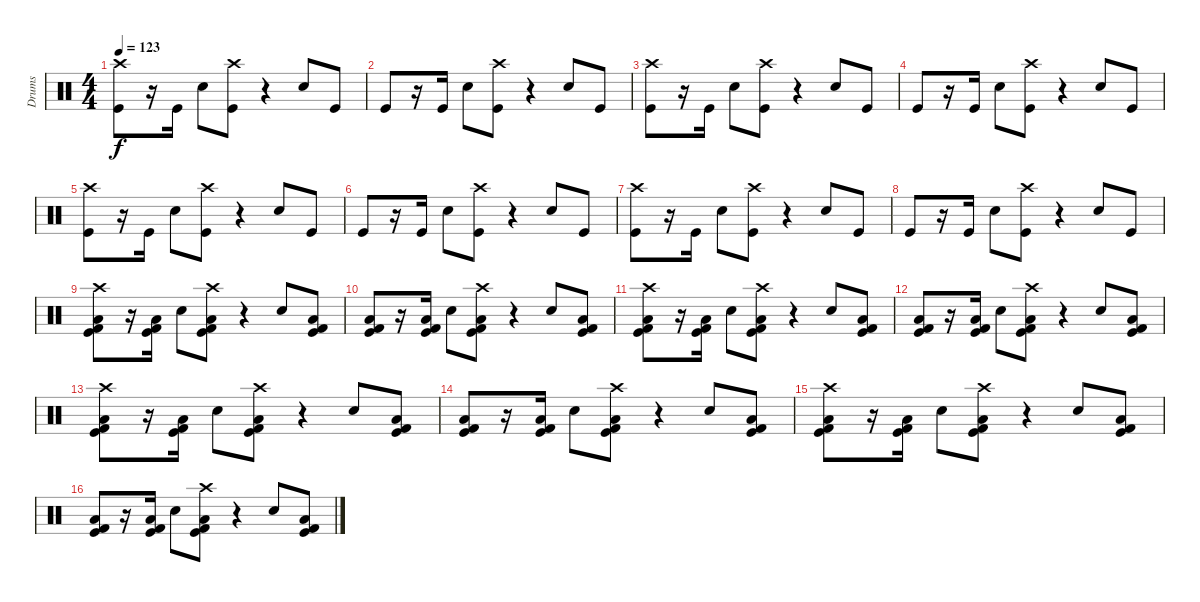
\track ("Drums" "Drums") {instrument percussion}
\staff {score}
\articulation defaults
\ts (4 4)
\tempo 123
\clef neutral
\ks c
("Crash high (hit)" "Kick (hit)").8{dy f volume 8} r.16 "Kick (hit)".16 "Electric Snare (hit)".8 ("Crash high (hit)" "Kick (hit)").8 r.4 "Electric Snare (hit)".8 "Kick (hit)".8 |
"Kick (hit)".8 r.16 "Kick (hit)".16 "Electric Snare (hit)".8 ("Crash high (hit)" "Kick (hit)").8 r.4 "Electric Snare (hit)".8 "Kick (hit)".8 |
("Crash high (hit)" "Kick (hit)").8 r.16 "Kick (hit)".16 "Electric Snare (hit)".8 ("Crash high (hit)" "Kick (hit)").8 r.4 "Electric Snare (hit)".8 "Kick (hit)".8 |
"Kick (hit)".8 r.16 "Kick (hit)".16 "Electric Snare (hit)".8 ("Crash high (hit)" "Kick (hit)").8 r.4 "Electric Snare (hit)".8 "Kick (hit)".8 |
("Crash high (hit)" "Kick (hit)").8 r.16 "Kick (hit)".16 "Electric Snare (hit)".8 ("Crash high (hit)" "Kick (hit)").8 r.4 "Electric Snare (hit)".8 "Kick (hit)".8 |
"Kick (hit)".8 r.16 "Kick (hit)".16 "Electric Snare (hit)".8 ("Crash high (hit)" "Kick (hit)").8 r.4 "Electric Snare (hit)".8 "Kick (hit)".8 |
("Crash high (hit)" "Kick (hit)").8 r.16 "Kick (hit)".16 "Electric Snare (hit)".8 ("Crash high (hit)" "Kick (hit)").8 r.4 "Electric Snare (hit)".8 "Kick (hit)".8 |
"Kick (hit)".8 r.16 "Kick (hit)".16 "Electric Snare (hit)".8 ("Crash high (hit)" "Kick (hit)").8 r.4 "Electric Snare (hit)".8 "Kick (hit)".8 |
("Crash high (hit)" "Kick (hit)" "Kick (hit) 2" "Low Floor Tom (hit)").8 r.16 ("Kick (hit)" "Kick (hit) 2" "Low Floor Tom (hit)").16 "Electric Snare (hit)".8 ("Crash high (hit)" "Kick (hit)" "Kick (hit) 2" "Low Floor Tom (hit)").8 r.4 "Electric Snare (hit)".8 ("Kick (hit)" "Kick (hit) 2" "Low Floor Tom (hit)").8 |
("Kick (hit)" "Kick (hit) 2" "Low Floor Tom (hit)").8 r.16 ("Kick (hit)" "Kick (hit) 2" "Low Floor Tom (hit)").16 "Electric Snare (hit)".8 ("Crash high (hit)" "Kick (hit)" "Kick (hit) 2" "Low Floor Tom (hit)").8 r.4 "Electric Snare (hit)".8 ("Kick (hit)" "Kick (hit) 2" "Low Floor Tom (hit)").8 |
("Crash high (hit)" "Kick (hit)" "Kick (hit) 2" "Low Floor Tom (hit)").8 r.16 ("Kick (hit)" "Kick (hit) 2" "Low Floor Tom (hit)").16 "Electric Snare (hit)".8 ("Crash high (hit)" "Kick (hit)" "Kick (hit) 2" "Low Floor Tom (hit)").8 r.4 "Electric Snare (hit)".8 ("Kick (hit)" "Kick (hit) 2" "Low Floor Tom (hit)").8 |
("Kick (hit)" "Kick (hit) 2" "Low Floor Tom (hit)").8 r.16 ("Kick (hit)" "Kick (hit) 2" "Low Floor Tom (hit)").16 "Electric Snare (hit)".8 ("Crash high (hit)" "Kick (hit)" "Kick (hit) 2" "Low Floor Tom (hit)").8 r.4 "Electric Snare (hit)".8 ("Kick (hit)" "Kick (hit) 2" "Low Floor Tom (hit)").8 |
("Crash high (hit)" "Kick (hit)" "Kick (hit) 2" "Low Floor Tom (hit)").8 r.16 ("Kick (hit)" "Kick (hit) 2" "Low Floor Tom (hit)").16 "Electric Snare (hit)".8 ("Crash high (hit)" "Kick (hit)" "Kick (hit) 2" "Low Floor Tom (hit)").8 r.4 "Electric Snare (hit)".8 ("Kick (hit)" "Kick (hit) 2" "Low Floor Tom (hit)").8 |
("Kick (hit)" "Kick (hit) 2" "Low Floor Tom (hit)").8 r.16 ("Kick (hit)" "Kick (hit) 2" "Low Floor Tom (hit)").16 "Electric Snare (hit)".8 ("Crash high (hit)" "Kick (hit)" "Kick (hit) 2" "Low Floor Tom (hit)").8 r.4 "Electric Snare (hit)".8 ("Kick (hit)" "Kick (hit) 2" "Low Floor Tom (hit)").8 |
("Crash high (hit)" "Kick (hit)" "Kick (hit) 2" "Low Floor Tom (hit)").8 r.16 ("Kick (hit)" "Kick (hit) 2" "Low Floor Tom (hit)").16 "Electric Snare (hit)".8 ("Crash high (hit)" "Kick (hit)" "Kick (hit) 2" "Low Floor Tom (hit)").8 r.4 "Electric Snare (hit)".8 ("Kick (hit)" "Kick (hit) 2" "Low Floor Tom (hit)").8 |
("Kick (hit)" "Kick (hit) 2" "Low Floor Tom (hit)").8 r.16 ("Kick (hit)" "Kick (hit) 2" "Low Floor Tom (hit)").16 "Electric Snare (hit)".8 ("Crash high (hit)" "Kick (hit)" "Kick (hit) 2" "Low Floor Tom (hit)").8 r.4 "Electric Snare (hit)".8 ("Kick (hit)" "Kick (hit) 2" "Low Floor Tom (hit)").8
